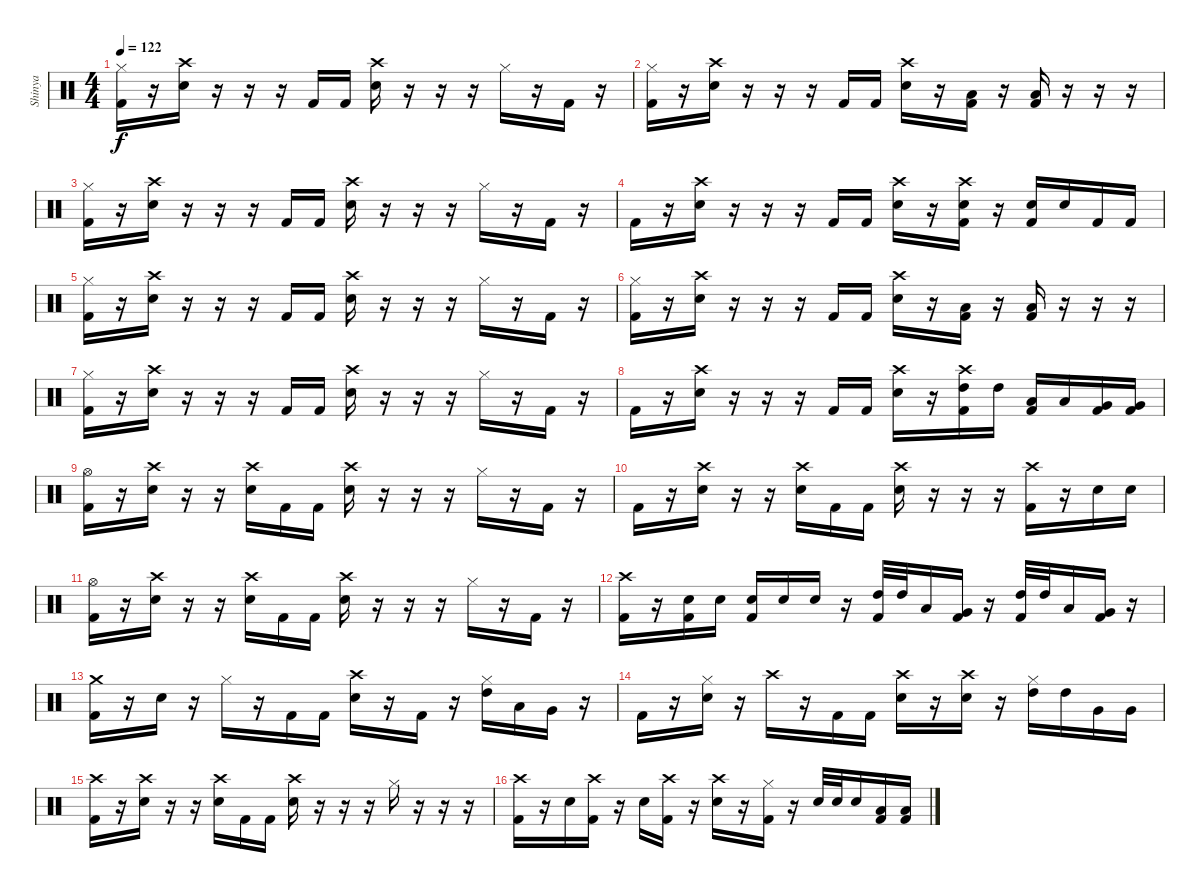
\track ("Shinya" "Shinya") {instrument percussion}
\staff {score}
\articulation defaults
\ts (4 4)
\tempo 122
\clef neutral
\ks c
("Hi-Hat (closed)" "Kick (hit) 2").16{dy f} r.16 ("Crash high (hit)" "Electric Snare (hit)").16 r.16 r.16 r.16 "Kick (hit) 2".16 "Kick (hit) 2".16 ("Crash high (hit)" "Electric Snare (hit)").16 r.16 r.16 r.16 "Hi-Hat (closed)".16 r.16 "Kick (hit) 2".16 r.16 |
("Hi-Hat (closed)" "Kick (hit) 2").16 r.16 ("Crash high (hit)" "Electric Snare (hit)").16 r.16 r.16 r.16 "Kick (hit) 2".16 "Kick (hit) 2".16 ("Crash high (hit)" "Electric Snare (hit)").16 r.16 ("Low Floor Tom (hit)" "Kick (hit) 2").16 r.16 ("Low Floor Tom (hit)" "Kick (hit) 2").16 r.16 r.16 r.16 |
("Hi-Hat (closed)" "Kick (hit) 2").16 r.16 ("Crash high (hit)" "Electric Snare (hit)").16 r.16 r.16 r.16 "Kick (hit) 2".16 "Kick (hit) 2".16 ("Crash high (hit)" "Electric Snare (hit)").16 r.16 r.16 r.16 "Hi-Hat (closed)".16 r.16 "Kick (hit) 2".16 r.16 |
"Kick (hit) 2".16 r.16 ("Crash high (hit)" "Electric Snare (hit)").16 r.16 r.16 r.16 "Kick (hit) 2".16 "Kick (hit) 2".16 ("Crash high (hit)" "Electric Snare (hit)").16 r.16 ("Crash high (hit)" "Electric Snare (hit)" "Kick (hit) 2").16 r.16 ("Electric Snare (hit)" "Kick (hit) 2").16 "Electric Snare (hit)".16 "Kick (hit) 2".16 "Kick (hit) 2".16 |
("Hi-Hat (closed)" "Kick (hit) 2").16 r.16 ("Crash high (hit)" "Electric Snare (hit)").16 r.16 r.16 r.16 "Kick (hit) 2".16 "Kick (hit) 2".16 ("Crash high (hit)" "Electric Snare (hit)").16 r.16 r.16 r.16 "Hi-Hat (closed)".16 r.16 "Kick (hit) 2".16 r.16 |
("Hi-Hat (closed)" "Kick (hit) 2").16 r.16 ("Crash high (hit)" "Electric Snare (hit)").16 r.16 r.16 r.16 "Kick (hit) 2".16 "Kick (hit) 2".16 ("Crash high (hit)" "Electric Snare (hit)").16 r.16 ("Low Floor Tom (hit)" "Kick (hit) 2").16 r.16 ("Low Floor Tom (hit)" "Kick (hit) 2").16 r.16 r.16 r.16 |
("Hi-Hat (closed)" "Kick (hit) 2").16 r.16 ("Crash high (hit)" "Electric Snare (hit)").16 r.16 r.16 r.16 "Kick (hit) 2".16 "Kick (hit) 2".16 ("Crash high (hit)" "Electric Snare (hit)").16 r.16 r.16 r.16 "Hi-Hat (closed)".16 r.16 "Kick (hit) 2".16 r.16 |
"Kick (hit) 2".16 r.16 ("Crash high (hit)" "Electric Snare (hit)").16 r.16 r.16 r.16 "Kick (hit) 2".16 "Kick (hit) 2".16 ("Crash high (hit)" "Electric Snare (hit)").16 r.16 ("Crash high (hit)" "High Tom (hit)" "Kick (hit) 2").16 "High Tom (hit)".16 ("Low Tom (hit)" "Kick (hit) 2").16 "Low Tom (hit)".16 ("Very Low Tom (hit)" "Kick (hit) 2").16 ("Very Low Tom (hit)" "Kick (hit) 2").16 |
("Hi-Hat (open)" "Kick (hit) 2").16 r.16 ("Crash high (hit)" "Electric Snare (hit)").16 r.16 r.16 ("Crash high (hit)" "Electric Snare (hit)").16 "Kick (hit) 2".16 "Kick (hit) 2".16 ("Crash high (hit)" "Electric Snare (hit)").16 r.16 r.16 r.16 "Hi-Hat (closed)".16 r.16 "Kick (hit) 2".16 r.16 |
"Kick (hit) 2".16 r.16 ("Crash high (hit)" "Electric Snare (hit)").16 r.16 r.16 ("Crash high (hit)" "Electric Snare (hit)").16 "Kick (hit) 2".16 "Kick (hit) 2".16 ("Crash high (hit)" "Electric Snare (hit)").16 r.16 r.16 r.16 ("Crash high (hit)" "Kick (hit) 2").16 r.16 "Electric Snare (hit)".16 "Electric Snare (hit)".16 |
("Hi-Hat (open)" "Kick (hit) 2").16 r.16 ("Crash high (hit)" "Electric Snare (hit)").16 r.16 r.16 ("Crash high (hit)" "Electric Snare (hit)").16 "Kick (hit) 2".16 "Kick (hit) 2".16 ("Crash high (hit)" "Electric Snare (hit)").16 r.16 r.16 r.16 "Hi-Hat (closed)".16 r.16 "Kick (hit) 2".16 r.16 |
("Crash high (hit)" "Kick (hit) 2").16 r.16 ("Electric Snare (hit)" "Kick (hit) 2").16 "Electric Snare (hit)".16 ("Electric Snare (hit)" "Kick (hit) 2").16 "Electric Snare (hit)".16 "Electric Snare (hit)".16 r.16 ("High Tom (hit)" "Kick (hit) 2").32 "High Tom (hit)".32 "Low Tom (hit)".16 ("Very Low Tom (hit)" "Kick (hit) 2").16 r.16 ("High Tom (hit)" "Kick (hit) 2").32 "High Tom (hit)".32 "Low Tom (hit)".16 ("Very Low Tom (hit)" "Kick (hit) 2").16 r.16 |
("Crash medium (hit)" "Kick (hit) 2").16 r.16 "Electric Snare (hit)".16 r.16 "Hi-Hat (closed)".16 r.16 "Kick (hit) 2".16 "Kick (hit) 2".16 ("Crash high (hit)" "Electric Snare (hit)").16 r.16 "Kick (hit) 2".16 r.16 ("Hi-Hat (closed)" "High Tom (hit)").16 "Low Tom (hit)".16 "Very Low Tom (hit)".16 r.16 |
"Kick (hit) 2".16 r.16 ("Hi-Hat (closed)" "Electric Snare (hit)").16 r.16 "Crash high (hit)".16 r.16 "Kick (hit) 2".16 "Kick (hit) 2".16 ("Crash high (hit)" "Electric Snare (hit)").16 r.16 ("Crash high (hit)" "Electric Snare (hit)").16 r.16 ("Hi-Hat (closed)" "High Tom (hit)").16 "High Tom (hit)".16 "Very Low Tom (hit)".16 "Very Low Tom (hit)".16 |
("Crash high (hit)" "Kick (hit) 2").16 r.16 ("Crash high (hit)" "Electric Snare (hit)").16 r.16 r.16 ("Crash high (hit)" "Electric Snare (hit)").16 "Kick (hit) 2".16 "Kick (hit) 2".16 ("Crash high (hit)" "Electric Snare (hit)").16 r.16 r.16 r.16 "Hi-Hat (closed)".16 r.16 r.16 r.16 |
("Crash high (hit)" "Kick (hit) 2").16 r.16 "Electric Snare (hit)".16 ("Crash high (hit)" "Kick (hit) 2").16 r.16 "Electric Snare (hit)".16 ("Crash high (hit)" "Kick (hit) 2").16 r.16 ("Crash high (hit)" "Electric Snare (hit)").16 r.16 ("Hi-Hat (closed)" "Kick (hit) 2").16 r.16 "Electric Snare (hit)".32 "Electric Snare (hit)".32 "Electric Snare (hit)".16 ("Low Floor Tom (hit)" "Kick (hit) 2").16 ("Low Floor Tom (hit)" "Kick (hit) 2").16
